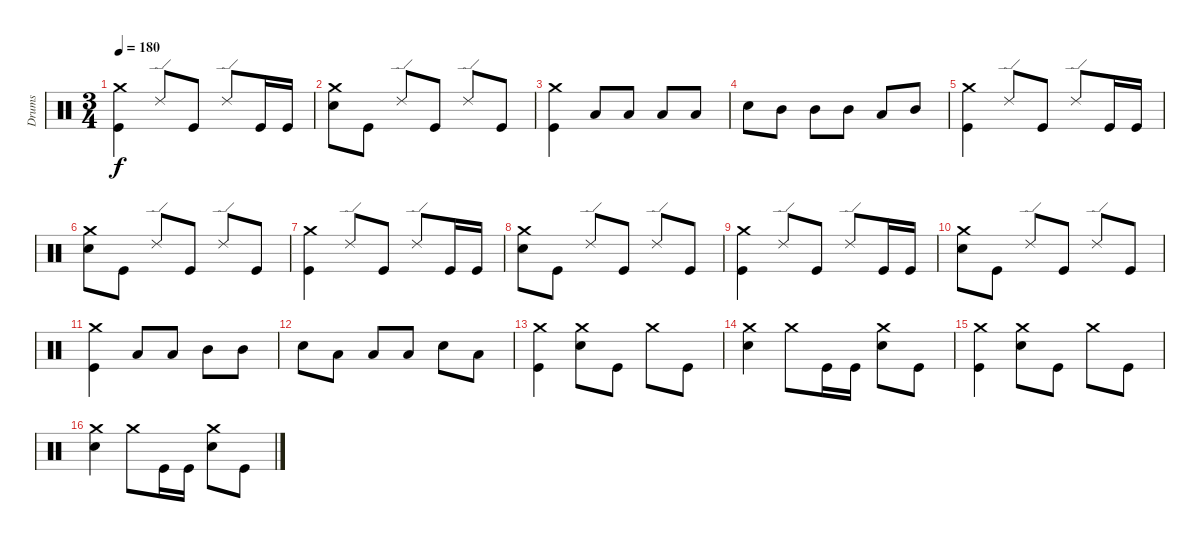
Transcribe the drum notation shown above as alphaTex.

\track ("Drums" "Drums") {instrument percussion}
\staff {score}
\articulation defaults
\ts (3 4)
\tempo 180
\clef neutral
\ks c
("Crash medium (hit)" "Kick (hit)").4{dy f} "Ride (edge) 2".8 "Kick (hit)".8 "Ride (edge) 2".8 "Kick (hit)".16 "Kick (hit)".16 |
("Crash medium (hit)" "Electric Snare (hit)").8 "Kick (hit)".8 "Ride (edge) 2".8 "Kick (hit)".8 "Ride (edge) 2".8 "Kick (hit)".8 |
("Crash medium (hit)" "Kick (hit)").4 "Low Floor Tom (hit)".8 "Low Floor Tom (hit)".8 "Low Tom (hit)".8 "Low Tom (hit)".8 |
"Electric Snare (hit)".8 "Mid Tom (hit)".8 "Mid Tom (hit)".8 "Mid Tom (hit)".8 "Low Floor Tom (hit)".8 "Mid Tom (hit)".8 |
("Crash medium (hit)" "Kick (hit)").4 "Ride (edge) 2".8 "Kick (hit)".8 "Ride (edge) 2".8 "Kick (hit)".16 "Kick (hit)".16 |
("Crash medium (hit)" "Electric Snare (hit)").8 "Kick (hit)".8 "Ride (edge) 2".8 "Kick (hit)".8 "Ride (edge) 2".8 "Kick (hit)".8 |
("Crash medium (hit)" "Kick (hit)").4 "Ride (edge) 2".8 "Kick (hit)".8 "Ride (edge) 2".8 "Kick (hit)".16 "Kick (hit)".16 |
("Crash medium (hit)" "Electric Snare (hit)").8 "Kick (hit)".8 "Ride (edge) 2".8 "Kick (hit)".8 "Ride (edge) 2".8 "Kick (hit)".8 |
("Crash medium (hit)" "Kick (hit)").4 "Ride (edge) 2".8 "Kick (hit)".8 "Ride (edge) 2".8 "Kick (hit)".16 "Kick (hit)".16 |
("Crash medium (hit)" "Electric Snare (hit)").8 "Kick (hit)".8 "Ride (edge) 2".8 "Kick (hit)".8 "Ride (edge) 2".8 "Kick (hit)".8 |
("Crash medium (hit)" "Kick (hit)").4 "Low Tom (hit)".8 "Low Tom (hit)".8 "Mid Tom (hit)".8 "Mid Tom (hit)".8 |
"Electric Snare (hit)".8 "Low Floor Tom (hit)".8 "Low Floor Tom (hit)".8 "Low Floor Tom (hit)".8 "Electric Snare (hit)".8 "Low Floor Tom (hit)".8 |
("Crash medium (hit)" "Kick (hit)").4 ("Crash medium (hit)" "Electric Snare (hit)").8 "Kick (hit)".8 "Crash medium (hit)".8 "Kick (hit)".8 |
("Crash medium (hit)" "Electric Snare (hit)").4 "Crash medium (hit)".8 "Kick (hit)".16 "Kick (hit)".16 ("Crash medium (hit)" "Electric Snare (hit)").8 "Kick (hit)".8 |
("Crash medium (hit)" "Kick (hit)").4 ("Crash medium (hit)" "Electric Snare (hit)").8 "Kick (hit)".8 "Crash medium (hit)".8 "Kick (hit)".8 |
("Crash medium (hit)" "Electric Snare (hit)").4 "Crash medium (hit)".8 "Kick (hit)".16 "Kick (hit)".16 ("Crash medium (hit)" "Electric Snare (hit)").8 "Kick (hit)".8
